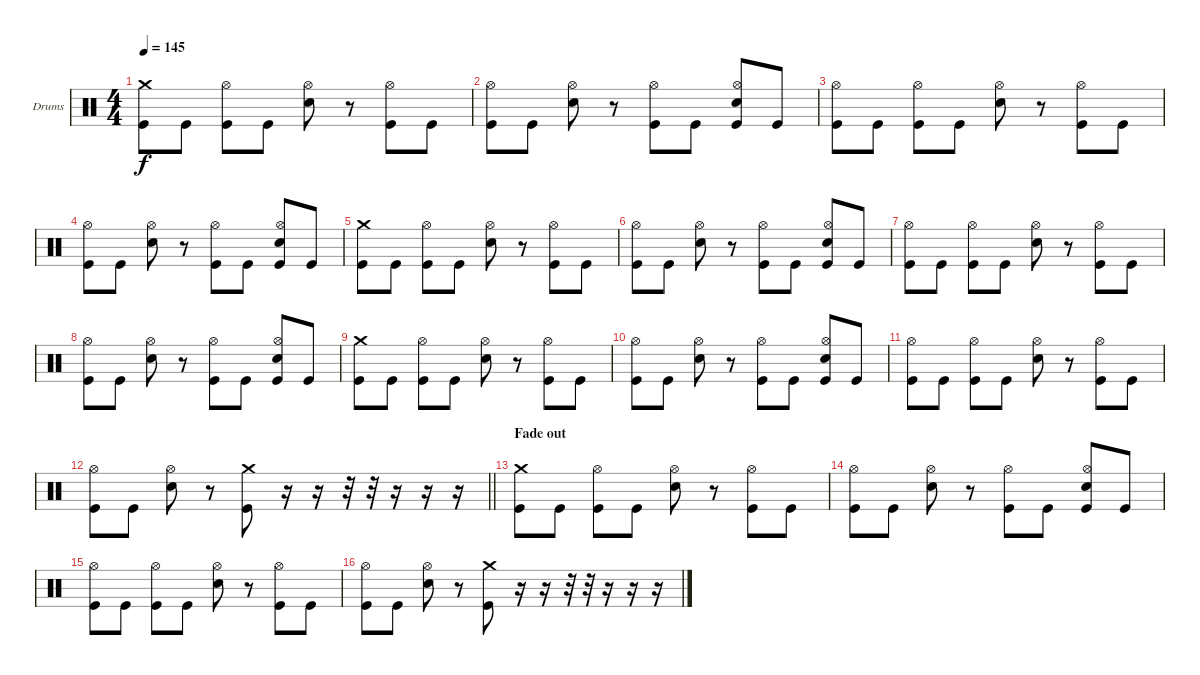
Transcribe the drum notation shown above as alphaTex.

\bracketExtendMode groupsimilarinstruments
\firstSystemTrackNameOrientation horizontal
\otherSystemsTrackNameOrientation horizontal
\track ("Drumkit" "Drums") {instrument percussion}
\staff {score}
\articulation defaults
\ts (4 4)
\tempo 145
\clef neutral
\ks c
("Crash medium (hit)" "Kick (hit)").8{dy f} "Kick (hit)".8 ("Hi-Hat (open)" "Kick (hit)").8 "Kick (hit)".8 ("Hi-Hat (open)" "Snare (hit) 2").8 r.8 ("Hi-Hat (open)" "Kick (hit)").8 "Kick (hit)".8 |
("Hi-Hat (open)" "Kick (hit)").8 "Kick (hit)".8 ("Hi-Hat (open)" "Snare (hit) 2").8 r.8 ("Hi-Hat (open)" "Kick (hit)").8 "Kick (hit)".8 ("Hi-Hat (open)" "Snare (hit) 2" "Kick (hit)").8 "Kick (hit)".8 |
("Hi-Hat (open)" "Kick (hit)").8 "Kick (hit)".8 ("Hi-Hat (open)" "Kick (hit)").8 "Kick (hit)".8 ("Hi-Hat (open)" "Snare (hit) 2").8 r.8 ("Hi-Hat (open)" "Kick (hit)").8 "Kick (hit)".8 |
("Hi-Hat (open)" "Kick (hit)").8 "Kick (hit)".8 ("Hi-Hat (open)" "Snare (hit) 2").8 r.8 ("Hi-Hat (open)" "Kick (hit)").8 "Kick (hit)".8 ("Hi-Hat (open)" "Snare (hit) 2" "Kick (hit)").8 "Kick (hit)".8 |
("Crash medium (hit)" "Kick (hit)").8 "Kick (hit)".8 ("Hi-Hat (open)" "Kick (hit)").8 "Kick (hit)".8 ("Hi-Hat (open)" "Snare (hit) 2").8 r.8 ("Hi-Hat (open)" "Kick (hit)").8 "Kick (hit)".8 |
("Hi-Hat (open)" "Kick (hit)").8 "Kick (hit)".8 ("Hi-Hat (open)" "Snare (hit) 2").8 r.8 ("Hi-Hat (open)" "Kick (hit)").8 "Kick (hit)".8 ("Hi-Hat (open)" "Snare (hit) 2" "Kick (hit)").8 "Kick (hit)".8 |
("Hi-Hat (open)" "Kick (hit)").8 "Kick (hit)".8 ("Hi-Hat (open)" "Kick (hit)").8 "Kick (hit)".8 ("Hi-Hat (open)" "Snare (hit) 2").8 r.8 ("Hi-Hat (open)" "Kick (hit)").8 "Kick (hit)".8 |
("Hi-Hat (open)" "Kick (hit)").8 "Kick (hit)".8 ("Hi-Hat (open)" "Snare (hit) 2").8 r.8 ("Hi-Hat (open)" "Kick (hit)").8 "Kick (hit)".8 ("Hi-Hat (open)" "Snare (hit) 2" "Kick (hit)").8 "Kick (hit)".8 |
("Crash medium (hit)" "Kick (hit)").8 "Kick (hit)".8 ("Hi-Hat (open)" "Kick (hit)").8 "Kick (hit)".8 ("Hi-Hat (open)" "Snare (hit) 2").8 r.8 ("Hi-Hat (open)" "Kick (hit)").8 "Kick (hit)".8 |
("Hi-Hat (open)" "Kick (hit)").8 "Kick (hit)".8 ("Hi-Hat (open)" "Snare (hit) 2").8 r.8 ("Hi-Hat (open)" "Kick (hit)").8 "Kick (hit)".8 ("Hi-Hat (open)" "Snare (hit) 2" "Kick (hit)").8 "Kick (hit)".8 |
("Hi-Hat (open)" "Kick (hit)").8 "Kick (hit)".8 ("Hi-Hat (open)" "Kick (hit)").8 "Kick (hit)".8 ("Hi-Hat (open)" "Snare (hit) 2").8 r.8 ("Hi-Hat (open)" "Kick (hit)").8 "Kick (hit)".8 |
\barLineRight lightlight
("Hi-Hat (open)" "Kick (hit)").8 "Kick (hit)".8 ("Hi-Hat (open)" "Snare (hit) 2").8 r.8 ("Crash medium (hit)" "Kick (hit)").8 r.16 r.16 r.32 r.32 r.16 r.16 r.16 |
\section ("" "Fade out")
("Crash medium (hit)" "Kick (hit)").8 "Kick (hit)".8 ("Hi-Hat (open)" "Kick (hit)").8 "Kick (hit)".8 ("Hi-Hat (open)" "Snare (hit) 2").8 r.8 ("Hi-Hat (open)" "Kick (hit)").8 "Kick (hit)".8 |
("Hi-Hat (open)" "Kick (hit)").8 "Kick (hit)".8 ("Hi-Hat (open)" "Snare (hit) 2").8 r.8 ("Hi-Hat (open)" "Kick (hit)").8 "Kick (hit)".8 ("Hi-Hat (open)" "Snare (hit) 2" "Kick (hit)").8 "Kick (hit)".8 |
("Hi-Hat (open)" "Kick (hit)").8 "Kick (hit)".8 ("Hi-Hat (open)" "Kick (hit)").8 "Kick (hit)".8 ("Hi-Hat (open)" "Snare (hit) 2").8 r.8 ("Hi-Hat (open)" "Kick (hit)").8 "Kick (hit)".8 |
("Hi-Hat (open)" "Kick (hit)").8 "Kick (hit)".8 ("Hi-Hat (open)" "Snare (hit) 2").8 r.8 ("Crash medium (hit)" "Kick (hit)").8 r.16 r.16 r.32 r.32 r.16 r.16 r.16
